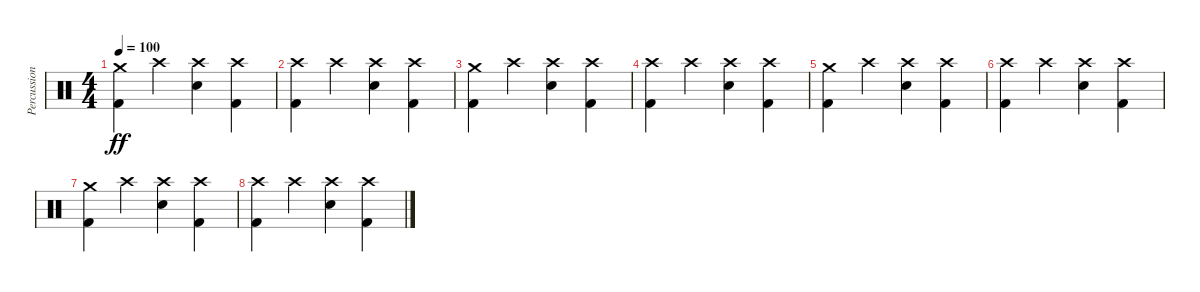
\track ("Percussion" "Percussion") {instrument percussion}
\staff {score}
\articulation defaults
\ts (4 4)
\tempo 100
\clef neutral
\ks c
("Crash medium (hit)" "Kick (hit) 2").4{dy ff} "Crash high (hit)".4 ("Crash high (hit)" "Electric Snare (hit)").4 ("Crash high (hit)" "Kick (hit) 2").4 |
("Crash high (hit)" "Kick (hit) 2").4 "Crash high (hit)".4 ("Crash high (hit)" "Electric Snare (hit)").4 ("Crash high (hit)" "Kick (hit) 2").4 |
("Crash medium (hit)" "Kick (hit) 2").4 "Crash high (hit)".4 ("Crash high (hit)" "Electric Snare (hit)").4 ("Crash high (hit)" "Kick (hit) 2").4 |
("Crash high (hit)" "Kick (hit) 2").4 "Crash high (hit)".4 ("Crash high (hit)" "Electric Snare (hit)").4 ("Crash high (hit)" "Kick (hit) 2").4 |
("Crash medium (hit)" "Kick (hit) 2").4 "Crash high (hit)".4 ("Crash high (hit)" "Electric Snare (hit)").4 ("Crash high (hit)" "Kick (hit) 2").4 |
("Crash high (hit)" "Kick (hit) 2").4 "Crash high (hit)".4 ("Crash high (hit)" "Electric Snare (hit)").4 ("Crash high (hit)" "Kick (hit) 2").4 |
("Crash medium (hit)" "Kick (hit) 2").4 "Crash high (hit)".4 ("Crash high (hit)" "Electric Snare (hit)").4 ("Crash high (hit)" "Kick (hit) 2").4 |
("Crash high (hit)" "Kick (hit) 2").4 "Crash high (hit)".4 ("Crash high (hit)" "Electric Snare (hit)").4 ("Crash high (hit)" "Kick (hit) 2").4
